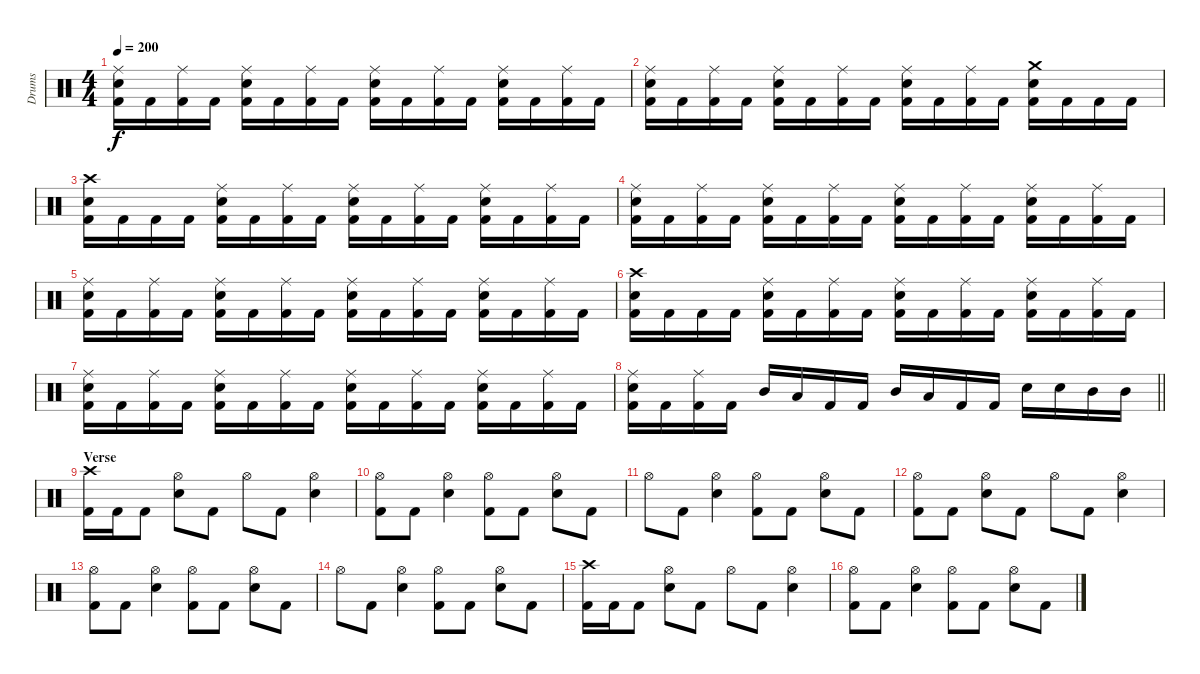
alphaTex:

\track ("Drums" "Drums") {instrument percussion}
\staff {score}
\articulation defaults
\ts (4 4)
\tempo 200
\clef neutral
\ks c
("Ride (middle)" "Snare (hit) 2" "Kick (hit) 2").16{dy f} "Kick (hit) 2".16 ("Ride (middle)" "Kick (hit) 2").16 "Kick (hit) 2".16 ("Ride (middle)" "Snare (hit) 2" "Kick (hit) 2").16 "Kick (hit) 2".16 ("Ride (middle)" "Kick (hit) 2").16 "Kick (hit) 2".16 ("Ride (middle)" "Snare (hit) 2" "Kick (hit) 2").16 "Kick (hit) 2".16 ("Ride (middle)" "Kick (hit) 2").16 "Kick (hit) 2".16 ("Ride (middle)" "Snare (hit) 2" "Kick (hit) 2").16 "Kick (hit) 2".16 ("Ride (middle)" "Kick (hit) 2").16 "Kick (hit) 2".16 |
("Ride (middle)" "Snare (hit) 2" "Kick (hit) 2").16 "Kick (hit) 2".16 ("Ride (middle)" "Kick (hit) 2").16 "Kick (hit) 2".16 ("Ride (middle)" "Snare (hit) 2" "Kick (hit) 2").16 "Kick (hit) 2".16 ("Ride (middle)" "Kick (hit) 2").16 "Kick (hit) 2".16 ("Ride (middle)" "Snare (hit) 2" "Kick (hit) 2").16 "Kick (hit) 2".16 ("Ride (middle)" "Kick (hit) 2").16 "Kick (hit) 2".16 ("Crash medium (hit)" "Snare (hit) 2" "Kick (hit) 2").16 "Kick (hit) 2".16 "Kick (hit) 2".16 "Kick (hit) 2".16 |
("Crash high (hit)" "Snare (hit) 2" "Kick (hit) 2").16 "Kick (hit) 2".16 "Kick (hit) 2".16 "Kick (hit) 2".16 ("Ride (middle)" "Snare (hit) 2" "Kick (hit) 2").16 "Kick (hit) 2".16 ("Ride (middle)" "Kick (hit) 2").16 "Kick (hit) 2".16 ("Ride (middle)" "Snare (hit) 2" "Kick (hit) 2").16 "Kick (hit) 2".16 ("Ride (middle)" "Kick (hit) 2").16 "Kick (hit) 2".16 ("Ride (middle)" "Snare (hit) 2" "Kick (hit) 2").16 "Kick (hit) 2".16 ("Ride (middle)" "Kick (hit) 2").16 "Kick (hit) 2".16 |
("Ride (middle)" "Snare (hit) 2" "Kick (hit) 2").16 "Kick (hit) 2".16 ("Ride (middle)" "Kick (hit) 2").16 "Kick (hit) 2".16 ("Ride (middle)" "Snare (hit) 2" "Kick (hit) 2").16 "Kick (hit) 2".16 ("Ride (middle)" "Kick (hit) 2").16 "Kick (hit) 2".16 ("Ride (middle)" "Snare (hit) 2" "Kick (hit) 2").16 "Kick (hit) 2".16 ("Ride (middle)" "Kick (hit) 2").16 "Kick (hit) 2".16 ("Ride (middle)" "Snare (hit) 2" "Kick (hit) 2").16 "Kick (hit) 2".16 ("Ride (middle)" "Kick (hit) 2").16 "Kick (hit) 2".16 |
("Ride (middle)" "Snare (hit) 2" "Kick (hit) 2").16 "Kick (hit) 2".16 ("Ride (middle)" "Kick (hit) 2").16 "Kick (hit) 2".16 ("Ride (middle)" "Snare (hit) 2" "Kick (hit) 2").16 "Kick (hit) 2".16 ("Ride (middle)" "Kick (hit) 2").16 "Kick (hit) 2".16 ("Ride (middle)" "Snare (hit) 2" "Kick (hit) 2").16 "Kick (hit) 2".16 ("Ride (middle)" "Kick (hit) 2").16 "Kick (hit) 2".16 ("Ride (middle)" "Snare (hit) 2" "Kick (hit) 2").16 "Kick (hit) 2".16 ("Ride (middle)" "Kick (hit) 2").16 "Kick (hit) 2".16 |
("Crash high (hit)" "Snare (hit) 2" "Kick (hit) 2").16 "Kick (hit) 2".16 "Kick (hit) 2".16 "Kick (hit) 2".16 ("Ride (middle)" "Snare (hit) 2" "Kick (hit) 2").16 "Kick (hit) 2".16 ("Ride (middle)" "Kick (hit) 2").16 "Kick (hit) 2".16 ("Ride (middle)" "Snare (hit) 2" "Kick (hit) 2").16 "Kick (hit) 2".16 ("Ride (middle)" "Kick (hit) 2").16 "Kick (hit) 2".16 ("Ride (middle)" "Snare (hit) 2" "Kick (hit) 2").16 "Kick (hit) 2".16 ("Ride (middle)" "Kick (hit) 2").16 "Kick (hit) 2".16 |
("Ride (middle)" "Snare (hit) 2" "Kick (hit) 2").16 "Kick (hit) 2".16 ("Ride (middle)" "Kick (hit) 2").16 "Kick (hit) 2".16 ("Ride (middle)" "Snare (hit) 2" "Kick (hit) 2").16 "Kick (hit) 2".16 ("Ride (middle)" "Kick (hit) 2").16 "Kick (hit) 2".16 ("Ride (middle)" "Snare (hit) 2" "Kick (hit) 2").16 "Kick (hit) 2".16 ("Ride (middle)" "Kick (hit) 2").16 "Kick (hit) 2".16 ("Ride (middle)" "Snare (hit) 2" "Kick (hit) 2").16 "Kick (hit) 2".16 ("Ride (middle)" "Kick (hit) 2").16 "Kick (hit) 2".16 |
\barLineRight lightlight
("Ride (middle)" "Snare (hit) 2" "Kick (hit) 2").16 "Kick (hit) 2".16 ("Ride (middle)" "Kick (hit) 2").16 "Kick (hit) 2".16 "Mid Tom (hit)".16 "Low Tom (hit)".16 "Kick (hit) 2".16 "Kick (hit) 2".16 "Mid Tom (hit)".16 "Low Tom (hit)".16 "Kick (hit) 2".16 "Kick (hit) 2".16 "Snare (hit) 2".16 "Snare (hit) 2".16 "Mid Tom (hit)".16 "Mid Tom (hit)".16 |
\section ("" "Verse")
("Crash high (hit)" "Kick (hit) 2").16 "Kick (hit) 2".16 "Kick (hit) 2".8 ("Hi-Hat (open)" "Snare (hit) 2").8 "Kick (hit) 2".8 "Hi-Hat (open)".8 "Kick (hit) 2".8 ("Hi-Hat (open)" "Snare (hit) 2").4 |
("Hi-Hat (open)" "Kick (hit) 2").8 "Kick (hit) 2".8 ("Hi-Hat (open)" "Snare (hit) 2").4 ("Hi-Hat (open)" "Kick (hit) 2").8 "Kick (hit) 2".8 ("Hi-Hat (open)" "Snare (hit) 2").8 "Kick (hit) 2".8 |
"Hi-Hat (open)".8 "Kick (hit) 2".8 ("Hi-Hat (open)" "Snare (hit) 2").4 ("Hi-Hat (open)" "Kick (hit) 2").8 "Kick (hit) 2".8 ("Hi-Hat (open)" "Snare (hit) 2").8 "Kick (hit) 2".8 |
("Hi-Hat (open)" "Kick (hit) 2").8 "Kick (hit) 2".8 ("Hi-Hat (open)" "Snare (hit) 2").8 "Kick (hit) 2".8 "Hi-Hat (open)".8 "Kick (hit) 2".8 ("Hi-Hat (open)" "Snare (hit) 2").4 |
("Hi-Hat (open)" "Kick (hit) 2").8 "Kick (hit) 2".8 ("Hi-Hat (open)" "Snare (hit) 2").4 ("Hi-Hat (open)" "Kick (hit) 2").8 "Kick (hit) 2".8 ("Hi-Hat (open)" "Snare (hit) 2").8 "Kick (hit) 2".8 |
"Hi-Hat (open)".8 "Kick (hit) 2".8 ("Hi-Hat (open)" "Snare (hit) 2").4 ("Hi-Hat (open)" "Kick (hit) 2").8 "Kick (hit) 2".8 ("Hi-Hat (open)" "Snare (hit) 2").8 "Kick (hit) 2".8 |
("Crash high (hit)" "Kick (hit) 2").16 "Kick (hit) 2".16 "Kick (hit) 2".8 ("Hi-Hat (open)" "Snare (hit) 2").8 "Kick (hit) 2".8 "Hi-Hat (open)".8 "Kick (hit) 2".8 ("Hi-Hat (open)" "Snare (hit) 2").4 |
("Hi-Hat (open)" "Kick (hit) 2").8 "Kick (hit) 2".8 ("Hi-Hat (open)" "Snare (hit) 2").4 ("Hi-Hat (open)" "Kick (hit) 2").8 "Kick (hit) 2".8 ("Hi-Hat (open)" "Snare (hit) 2").8 "Kick (hit) 2".8
